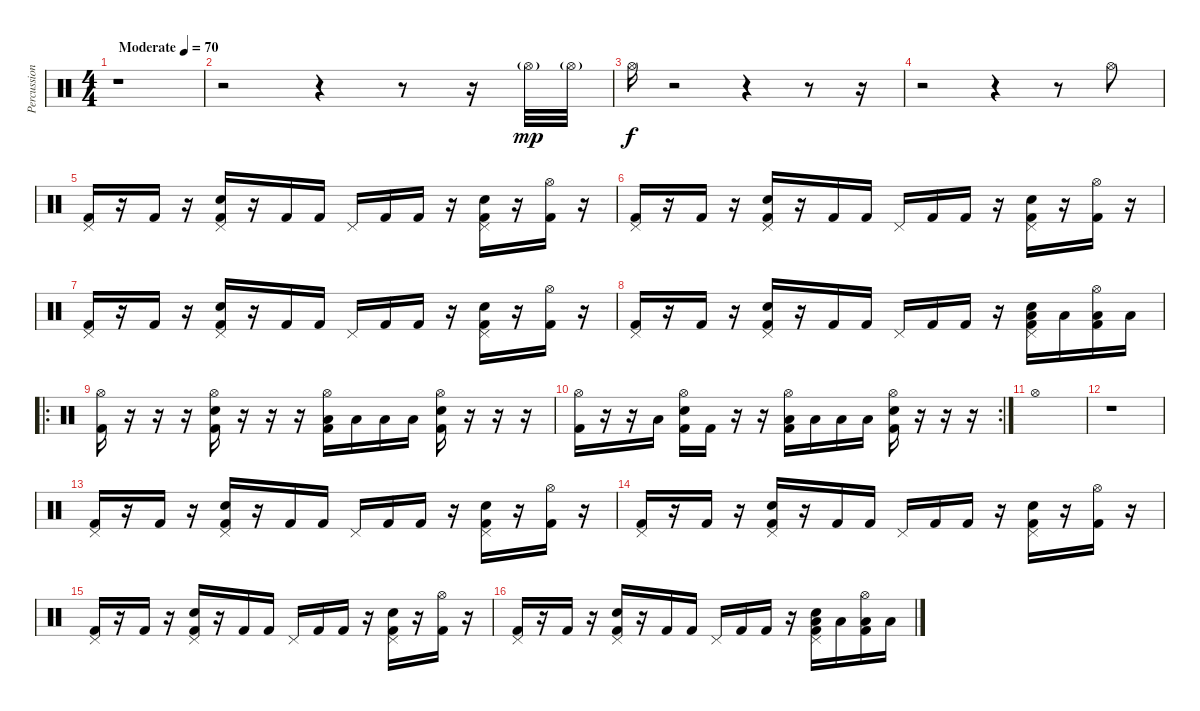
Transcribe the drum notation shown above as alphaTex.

\track ("Percussion" "Percussion") {instrument percussion}
\staff {score}
\articulation defaults
\ts (4 4)
\tempo (70 "Moderate")
\clef neutral
\ks c
r.1{dy mp} |
r.2 r.4 r.8 r.16 "Hi-Hat (open)"{g}.32 "Hi-Hat (open)"{g}.32 |
"Hi-Hat (open)".16{dy f} r.2 r.4 r.8 r.16 |
r.2 r.4 r.8 "Hi-Hat (open)".8 |
("Pedal Hi-Hat (hit)" "Kick (hit) 2").16 r.16 "Kick (hit) 2".16 r.16 ("Pedal Hi-Hat (hit)" "Snare (hit) 2" "Kick (hit) 2").16 r.16 "Kick (hit) 2".16 "Kick (hit) 2".16 "Pedal Hi-Hat (hit)".16 "Kick (hit) 2".16 "Kick (hit) 2".16 r.16 ("Pedal Hi-Hat (hit)" "Snare (hit) 2" "Kick (hit) 2").16 r.16 ("Hi-Hat (open)" "Kick (hit) 2").16 r.16 |
("Pedal Hi-Hat (hit)" "Kick (hit) 2").16 r.16 "Kick (hit) 2".16 r.16 ("Pedal Hi-Hat (hit)" "Snare (hit) 2" "Kick (hit) 2").16 r.16 "Kick (hit) 2".16 "Kick (hit) 2".16 "Pedal Hi-Hat (hit)".16 "Kick (hit) 2".16 "Kick (hit) 2".16 r.16 ("Pedal Hi-Hat (hit)" "Snare (hit) 2" "Kick (hit) 2").16 r.16 ("Hi-Hat (open)" "Kick (hit) 2").16 r.16 |
("Pedal Hi-Hat (hit)" "Kick (hit) 2").16 r.16 "Kick (hit) 2".16 r.16 ("Pedal Hi-Hat (hit)" "Snare (hit) 2" "Kick (hit) 2").16 r.16 "Kick (hit) 2".16 "Kick (hit) 2".16 "Pedal Hi-Hat (hit)".16 "Kick (hit) 2".16 "Kick (hit) 2".16 r.16 ("Pedal Hi-Hat (hit)" "Snare (hit) 2" "Kick (hit) 2").16 r.16 ("Hi-Hat (open)" "Kick (hit) 2").16 r.16 |
("Pedal Hi-Hat (hit)" "Kick (hit) 2").16 r.16 "Kick (hit) 2".16 r.16 ("Pedal Hi-Hat (hit)" "Snare (hit) 2" "Kick (hit) 2").16 r.16 "Kick (hit) 2".16 "Kick (hit) 2".16 "Pedal Hi-Hat (hit)".16 "Kick (hit) 2".16 "Kick (hit) 2".16 r.16 ("Pedal Hi-Hat (hit)" "Snare (hit) 2" "Low Tom (hit)" "Kick (hit) 2").16 "Low Tom (hit)".16 ("Hi-Hat (open)" "Low Tom (hit)" "Kick (hit) 2").16 "Low Tom (hit)".16 |
\ro
("Hi-Hat (open)" "Kick (hit) 2").16 r.16 r.16 r.16 ("Hi-Hat (open)" "Snare (hit) 2" "Kick (hit) 2").16 r.16 r.16 r.16 ("Hi-Hat (open)" "Low Tom (hit)" "Kick (hit) 2").16 "Low Tom (hit)".16 "Low Tom (hit)".16 "Low Tom (hit)".16 ("Hi-Hat (open)" "Snare (hit) 2" "Kick (hit) 2").16 r.16 r.16 r.16 |
\rc 2
("Hi-Hat (open)" "Kick (hit) 2").16 r.16 r.16 "Low Tom (hit)".16 ("Hi-Hat (open)" "Snare (hit) 2" "Kick (hit) 2").16 "Kick (hit) 2".16 r.16 r.16 ("Hi-Hat (open)" "Low Tom (hit)" "Kick (hit) 2").16 "Low Tom (hit)".16 "Low Tom (hit)".16 "Low Tom (hit)".16 ("Hi-Hat (open)" "Snare (hit) 2" "Kick (hit) 2").16 r.16 r.16 r.16 |
"Hi-Hat (open)".1 |
r.1 |
("Pedal Hi-Hat (hit)" "Kick (hit) 2").16 r.16 "Kick (hit) 2".16 r.16 ("Pedal Hi-Hat (hit)" "Snare (hit) 2" "Kick (hit) 2").16 r.16 "Kick (hit) 2".16 "Kick (hit) 2".16 "Pedal Hi-Hat (hit)".16 "Kick (hit) 2".16 "Kick (hit) 2".16 r.16 ("Pedal Hi-Hat (hit)" "Snare (hit) 2" "Kick (hit) 2").16 r.16 ("Hi-Hat (open)" "Kick (hit) 2").16 r.16 |
("Pedal Hi-Hat (hit)" "Kick (hit) 2").16 r.16 "Kick (hit) 2".16 r.16 ("Pedal Hi-Hat (hit)" "Snare (hit) 2" "Kick (hit) 2").16 r.16 "Kick (hit) 2".16 "Kick (hit) 2".16 "Pedal Hi-Hat (hit)".16 "Kick (hit) 2".16 "Kick (hit) 2".16 r.16 ("Pedal Hi-Hat (hit)" "Snare (hit) 2" "Kick (hit) 2").16 r.16 ("Hi-Hat (open)" "Kick (hit) 2").16 r.16 |
("Pedal Hi-Hat (hit)" "Kick (hit) 2").16 r.16 "Kick (hit) 2".16 r.16 ("Pedal Hi-Hat (hit)" "Snare (hit) 2" "Kick (hit) 2").16 r.16 "Kick (hit) 2".16 "Kick (hit) 2".16 "Pedal Hi-Hat (hit)".16 "Kick (hit) 2".16 "Kick (hit) 2".16 r.16 ("Pedal Hi-Hat (hit)" "Snare (hit) 2" "Kick (hit) 2").16 r.16 ("Hi-Hat (open)" "Kick (hit) 2").16 r.16 |
("Pedal Hi-Hat (hit)" "Kick (hit) 2").16 r.16 "Kick (hit) 2".16 r.16 ("Pedal Hi-Hat (hit)" "Snare (hit) 2" "Kick (hit) 2").16 r.16 "Kick (hit) 2".16 "Kick (hit) 2".16 "Pedal Hi-Hat (hit)".16 "Kick (hit) 2".16 "Kick (hit) 2".16 r.16 ("Pedal Hi-Hat (hit)" "Snare (hit) 2" "Low Tom (hit)" "Kick (hit) 2").16 "Low Tom (hit)".16 ("Hi-Hat (open)" "Low Tom (hit)" "Kick (hit) 2").16 "Low Tom (hit)".16
